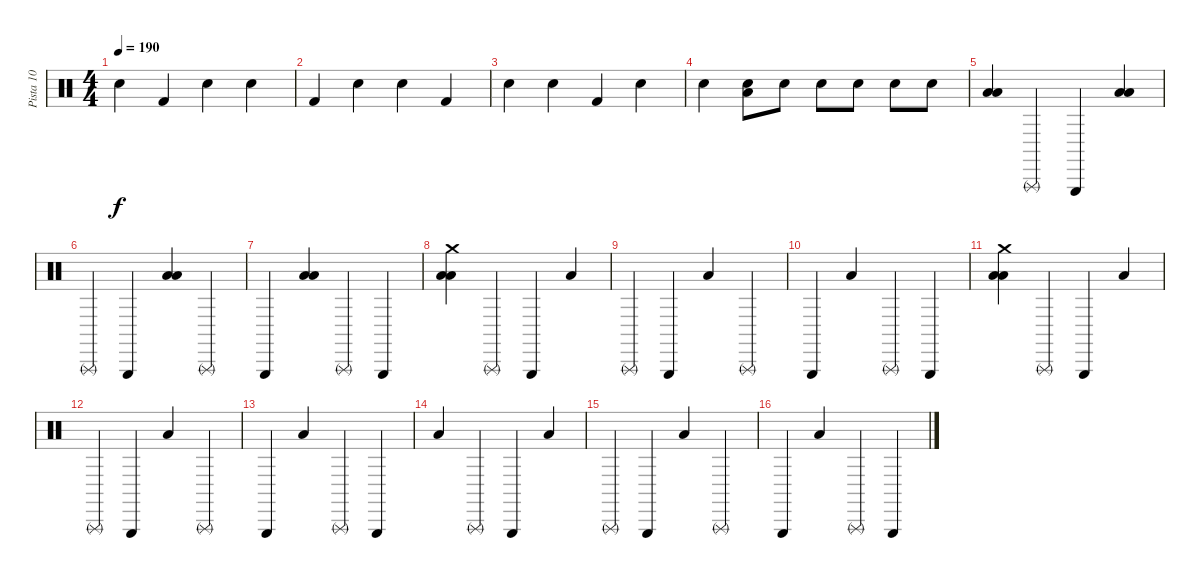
\track ("Pista 10" "Pista 10") {instrument percussion}
\staff {score}
\articulation defaults
\ts (4 4)
\tempo 190
\clef neutral
\ks c "Snare (hit) 2".4{dy f} "Kick (hit) 2".4 "Snare (hit) 2".4 "Snare (hit) 2".4
|
"Kick (hit) 2".4 "Snare (hit) 2".4 "Snare (hit) 2".4 "Kick (hit) 2".4 |
"Snare (hit) 2".4 "Snare (hit) 2".4 "Kick (hit) 2".4 "Snare (hit) 2".4 |
"Snare (hit) 2".4 ("Snare (hit) 2" "Low Floor Tom (hit)").8 "Snare (hit) 2".8 "Snare (hit) 2".8 "Snare (hit) 2".8 "Snare (hit) 2".8 "Snare (hit) 2".8 |
("Low Floor Tom (hit)" "Low Floor Tom (hit)").4 "Triangle (rnute)".4 "Triangle (hit)".4 ("Low Floor Tom (hit)" "Low Floor Tom (hit)").4 |
"Triangle (rnute)".4 "Triangle (hit)".4 ("Low Floor Tom (hit)" "Low Floor Tom (hit)").4 "Triangle (rnute)".4 |
"Triangle (hit)".4 ("Low Floor Tom (hit)" "Low Floor Tom (hit)").4 "Triangle (rnute)".4 "Triangle (hit)".4 |
("Low Floor Tom (hit)" "Low Floor Tom (hit)" "Crash medium (hit)").4 "Triangle (rnute)".4 "Triangle (hit)".4 "Low Floor Tom (hit)".4 |
"Triangle (rnute)".4 "Triangle (hit)".4 "Low Floor Tom (hit)".4 "Triangle (rnute)".4 |
"Triangle (hit)".4 "Low Floor Tom (hit)".4 "Triangle (rnute)".4 "Triangle (hit)".4 |
("Low Floor Tom (hit)" "Low Floor Tom (hit)" "Crash medium (hit)").4 "Triangle (rnute)".4 "Triangle (hit)".4 "Low Floor Tom (hit)".4 |
"Triangle (rnute)".4 "Triangle (hit)".4 "Low Floor Tom (hit)".4 "Triangle (rnute)".4 |
"Triangle (hit)".4 "Low Floor Tom (hit)".4 "Triangle (rnute)".4 "Triangle (hit)".4 |
"Low Floor Tom (hit)".4 "Triangle (rnute)".4 "Triangle (hit)".4 "Low Floor Tom (hit)".4 |
"Triangle (rnute)".4 "Triangle (hit)".4 "Low Floor Tom (hit)".4 "Triangle (rnute)".4 |
"Triangle (hit)".4 "Low Floor Tom (hit)".4 "Triangle (rnute)".4 "Triangle (hit)".4
